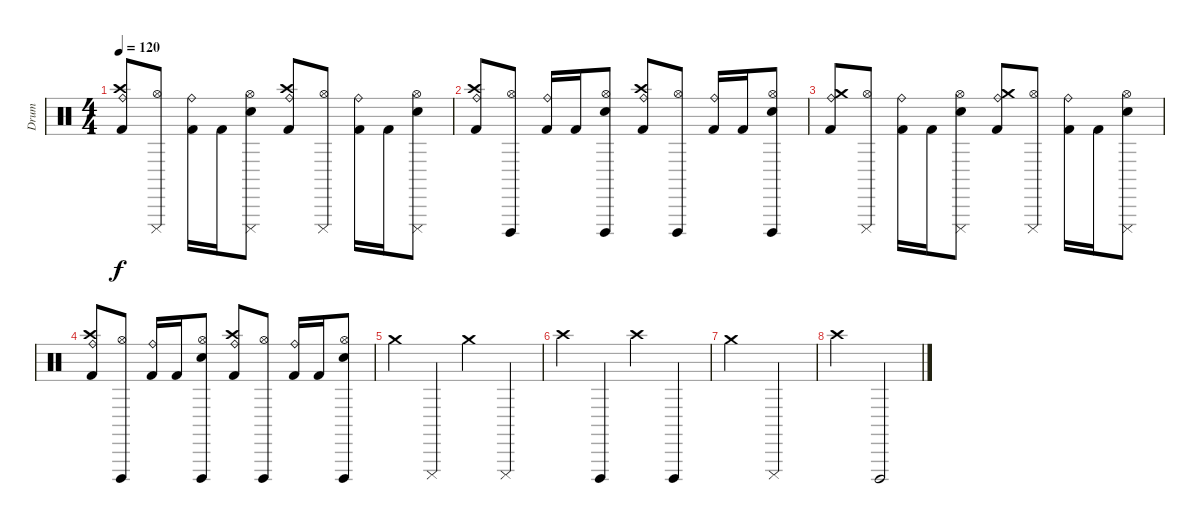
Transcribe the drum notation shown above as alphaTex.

\track ("Drum" "Drum") {instrument percussion}
\staff {score}
\articulation defaults
\ts (4 4)
\tempo 120
\clef neutral
\ks c
("Crash high (hit)" "Ride (bell)" "Kick (hit) 2").8{dy f} ("Hi-Hat (open)" "Cuica (mute)").8 ("Ride (bell)" "Kick (hit) 2").16 "Kick (hit) 2".16 ("Hi-Hat (open)" "Snare (hit) 2" "Cuica (mute)").8 ("Crash high (hit)" "Ride (bell)" "Kick (hit) 2").8 ("Hi-Hat (open)" "Cuica (mute)").8 ("Ride (bell)" "Kick (hit) 2").16 "Kick (hit) 2".16 ("Hi-Hat (open)" "Snare (hit) 2" "Cuica (mute)").8 |
("Crash high (hit)" "Ride (bell)" "Kick (hit) 2").8 ("Hi-Hat (open)" "Cuica (open)").8 ("Ride (bell)" "Kick (hit) 2").16 "Kick (hit) 2".16 ("Hi-Hat (open)" "Snare (hit) 2" "Cuica (open)").8 ("Crash high (hit)" "Ride (bell)" "Kick (hit) 2").8 ("Hi-Hat (open)" "Cuica (open)").8 ("Ride (bell)" "Kick (hit) 2").16 "Kick (hit) 2".16 ("Hi-Hat (open)" "Snare (hit) 2" "Cuica (open)").8 |
("Crash medium (hit)" "Ride (bell)" "Kick (hit) 2").8 ("Hi-Hat (open)" "Cuica (mute)").8 ("Ride (bell)" "Kick (hit) 2").16 "Kick (hit) 2".16 ("Hi-Hat (open)" "Snare (hit) 2" "Cuica (mute)").8 ("Crash medium (hit)" "Ride (bell)" "Kick (hit) 2").8 ("Hi-Hat (open)" "Cuica (mute)").8 ("Ride (bell)" "Kick (hit) 2").16 "Kick (hit) 2".16 ("Hi-Hat (open)" "Snare (hit) 2" "Cuica (mute)").8 |
("Crash high (hit)" "Ride (bell)" "Kick (hit) 2").8 ("Hi-Hat (open)" "Cuica (open)").8 ("Ride (bell)" "Kick (hit) 2").16 "Kick (hit) 2".16 ("Hi-Hat (open)" "Snare (hit) 2" "Cuica (open)").8 ("Crash high (hit)" "Ride (bell)" "Kick (hit) 2").8 ("Hi-Hat (open)" "Cuica (open)").8 ("Ride (bell)" "Kick (hit) 2").16 "Kick (hit) 2".16 ("Hi-Hat (open)" "Snare (hit) 2" "Cuica (open)").8 |
"Crash medium (hit)".4 "Cuica (mute)".4 "Crash medium (hit)".4 "Cuica (mute)".4 |
"Crash high (hit)".4 "Cuica (open)".4 "Crash high (hit)".4 "Cuica (open)".4 |
"Crash medium (hit)".2 "Cuica (mute)".2 |
"Crash high (hit)".2 "Cuica (open)".2
